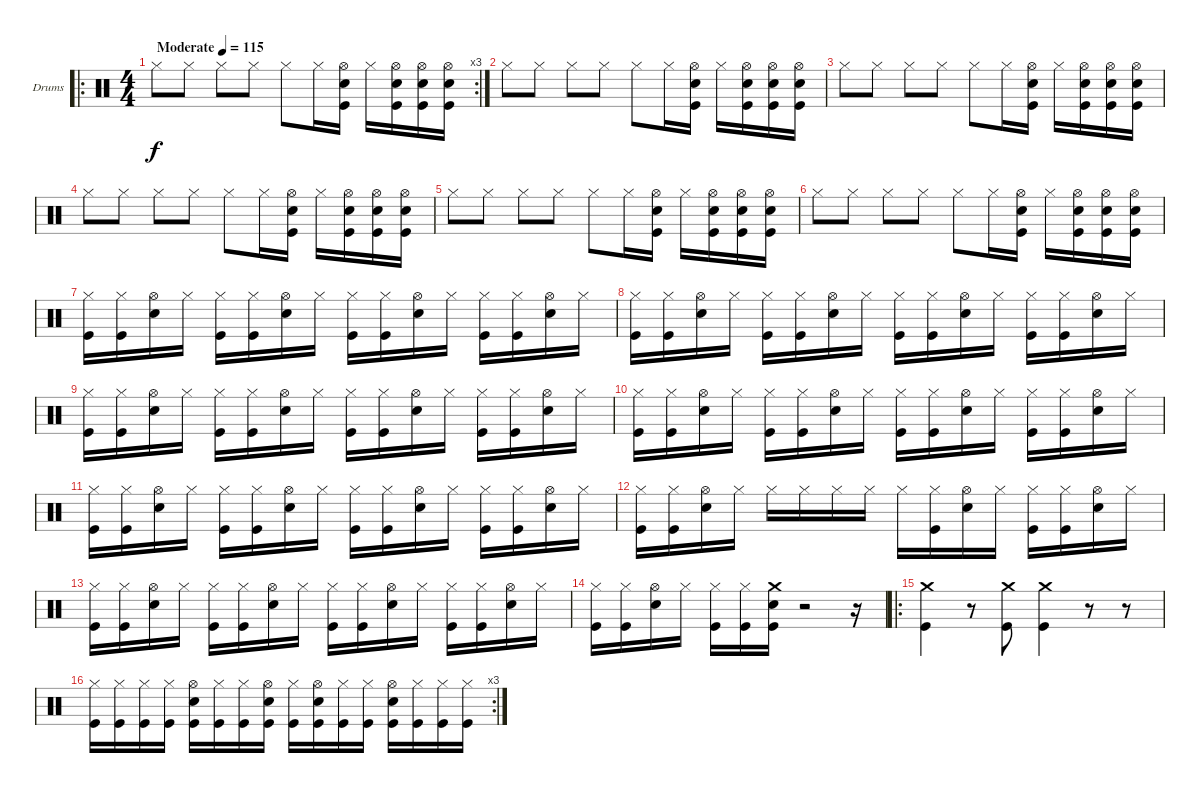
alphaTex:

\bracketExtendMode groupsimilarinstruments
\firstSystemTrackNameOrientation horizontal
\otherSystemsTrackNameOrientation horizontal
\track ("Drumkit" "Drums") {instrument percussion}
\staff {score}
\articulation defaults
\ro
\rc 3
\ts (4 4)
\beaming (8 2 2 2 2)
\tempo (115 "Moderate")
\clef neutral
\ks c "Hi-Hat (closed)".8{dy f} "Hi-Hat (closed)".8 "Hi-Hat (closed)".8 "Hi-Hat (closed)".8 "Hi-Hat (closed)".8 "Hi-Hat (closed)".16
("Hi-Hat (open)" "Snare (hit) 2" "Kick (hit)").16 "Hi-Hat (closed)".16 ("Hi-Hat (open)" "Snare (hit) 2" "Kick (hit)").16 ("Hi-Hat (open)" "Snare (hit) 2" "Kick (hit)").16 ("Hi-Hat (open)" "Snare (hit) 2" "Kick (hit)").16 |
"Hi-Hat (closed)".8 "Hi-Hat (closed)".8 "Hi-Hat (closed)".8 "Hi-Hat (closed)".8 "Hi-Hat (closed)".8 "Hi-Hat (closed)".16 ("Hi-Hat (open)" "Snare (hit) 2" "Kick (hit)").16 "Hi-Hat (closed)".16 ("Hi-Hat (open)" "Snare (hit) 2" "Kick (hit)").16 ("Hi-Hat (open)" "Snare (hit) 2" "Kick (hit)").16 ("Hi-Hat (open)" "Snare (hit) 2" "Kick (hit)").16 |
"Hi-Hat (closed)".8 "Hi-Hat (closed)".8 "Hi-Hat (closed)".8 "Hi-Hat (closed)".8 "Hi-Hat (closed)".8 "Hi-Hat (closed)".16 ("Hi-Hat (open)" "Snare (hit) 2" "Kick (hit)").16 "Hi-Hat (closed)".16 ("Hi-Hat (open)" "Snare (hit) 2" "Kick (hit)").16 ("Hi-Hat (open)" "Snare (hit) 2" "Kick (hit)").16 ("Hi-Hat (open)" "Snare (hit) 2" "Kick (hit)").16 |
"Hi-Hat (closed)".8 "Hi-Hat (closed)".8 "Hi-Hat (closed)".8 "Hi-Hat (closed)".8 "Hi-Hat (closed)".8 "Hi-Hat (closed)".16 ("Hi-Hat (open)" "Snare (hit) 2" "Kick (hit)").16 "Hi-Hat (closed)".16 ("Hi-Hat (open)" "Snare (hit) 2" "Kick (hit)").16 ("Hi-Hat (open)" "Snare (hit) 2" "Kick (hit)").16 ("Hi-Hat (open)" "Snare (hit) 2" "Kick (hit)").16 |
"Hi-Hat (closed)".8 "Hi-Hat (closed)".8 "Hi-Hat (closed)".8 "Hi-Hat (closed)".8 "Hi-Hat (closed)".8 "Hi-Hat (closed)".16 ("Hi-Hat (open)" "Snare (hit) 2" "Kick (hit)").16 "Hi-Hat (closed)".16 ("Hi-Hat (open)" "Snare (hit) 2" "Kick (hit)").16 ("Hi-Hat (open)" "Snare (hit) 2" "Kick (hit)").16 ("Hi-Hat (open)" "Snare (hit) 2" "Kick (hit)").16 |
"Hi-Hat (closed)".8 "Hi-Hat (closed)".8 "Hi-Hat (closed)".8 "Hi-Hat (closed)".8 "Hi-Hat (closed)".8 "Hi-Hat (closed)".16 ("Hi-Hat (open)" "Snare (hit) 2" "Kick (hit)").16 "Hi-Hat (closed)".16 ("Hi-Hat (open)" "Snare (hit) 2" "Kick (hit)").16 ("Hi-Hat (open)" "Snare (hit) 2" "Kick (hit)").16 ("Hi-Hat (open)" "Snare (hit) 2" "Kick (hit)").16 |
("Hi-Hat (closed)" "Kick (hit)").16 ("Hi-Hat (closed)" "Kick (hit)").16 ("Hi-Hat (open)" "Snare (hit) 2").16 "Hi-Hat (closed)".16 ("Hi-Hat (closed)" "Kick (hit)").16 ("Hi-Hat (closed)" "Kick (hit)").16 ("Hi-Hat (open)" "Snare (hit) 2").16 "Hi-Hat (closed)".16 ("Hi-Hat (closed)" "Kick (hit)").16 ("Hi-Hat (closed)" "Kick (hit)").16 ("Hi-Hat (open)" "Snare (hit) 2").16 "Hi-Hat (closed)".16 ("Hi-Hat (closed)" "Kick (hit)").16 ("Hi-Hat (closed)" "Kick (hit)").16 ("Hi-Hat (open)" "Snare (hit) 2").16 "Hi-Hat (closed)".16 |
("Hi-Hat (closed)" "Kick (hit)").16 ("Hi-Hat (closed)" "Kick (hit)").16 ("Hi-Hat (open)" "Snare (hit) 2").16 "Hi-Hat (closed)".16 ("Hi-Hat (closed)" "Kick (hit)").16 ("Hi-Hat (closed)" "Kick (hit)").16 ("Hi-Hat (open)" "Snare (hit) 2").16 "Hi-Hat (closed)".16 ("Hi-Hat (closed)" "Kick (hit)").16 ("Hi-Hat (closed)" "Kick (hit)").16 ("Hi-Hat (open)" "Snare (hit) 2").16 "Hi-Hat (closed)".16 ("Hi-Hat (closed)" "Kick (hit)").16 ("Hi-Hat (closed)" "Kick (hit)").16 ("Hi-Hat (open)" "Snare (hit) 2").16 "Hi-Hat (closed)".16 |
("Hi-Hat (closed)" "Kick (hit)").16 ("Hi-Hat (closed)" "Kick (hit)").16 ("Hi-Hat (open)" "Snare (hit) 2").16 "Hi-Hat (closed)".16 ("Hi-Hat (closed)" "Kick (hit)").16 ("Hi-Hat (closed)" "Kick (hit)").16 ("Hi-Hat (open)" "Snare (hit) 2").16 "Hi-Hat (closed)".16 ("Hi-Hat (closed)" "Kick (hit)").16 ("Hi-Hat (closed)" "Kick (hit)").16 ("Hi-Hat (open)" "Snare (hit) 2").16 "Hi-Hat (closed)".16 ("Hi-Hat (closed)" "Kick (hit)").16 ("Hi-Hat (closed)" "Kick (hit)").16 ("Hi-Hat (open)" "Snare (hit) 2").16 "Hi-Hat (closed)".16 |
("Hi-Hat (closed)" "Kick (hit)").16 ("Hi-Hat (closed)" "Kick (hit)").16 ("Hi-Hat (open)" "Snare (hit) 2").16 "Hi-Hat (closed)".16 ("Hi-Hat (closed)" "Kick (hit)").16 ("Hi-Hat (closed)" "Kick (hit)").16 ("Hi-Hat (open)" "Snare (hit) 2").16 "Hi-Hat (closed)".16 ("Hi-Hat (closed)" "Kick (hit)").16 ("Hi-Hat (closed)" "Kick (hit)").16 ("Hi-Hat (open)" "Snare (hit) 2").16 "Hi-Hat (closed)".16 ("Hi-Hat (closed)" "Kick (hit)").16 ("Hi-Hat (closed)" "Kick (hit)").16 ("Hi-Hat (open)" "Snare (hit) 2").16 "Hi-Hat (closed)".16 |
("Hi-Hat (closed)" "Kick (hit)").16 ("Hi-Hat (closed)" "Kick (hit)").16 ("Hi-Hat (open)" "Snare (hit) 2").16 "Hi-Hat (closed)".16 ("Hi-Hat (closed)" "Kick (hit)").16 ("Hi-Hat (closed)" "Kick (hit)").16 ("Hi-Hat (open)" "Snare (hit) 2").16 "Hi-Hat (closed)".16 ("Hi-Hat (closed)" "Kick (hit)").16 ("Hi-Hat (closed)" "Kick (hit)").16 ("Hi-Hat (open)" "Snare (hit) 2").16 "Hi-Hat (closed)".16 ("Hi-Hat (closed)" "Kick (hit)").16 ("Hi-Hat (closed)" "Kick (hit)").16 ("Hi-Hat (open)" "Snare (hit) 2").16 "Hi-Hat (closed)".16 |
("Hi-Hat (closed)" "Kick (hit)").16 ("Hi-Hat (closed)" "Kick (hit)").16 ("Hi-Hat (open)" "Snare (hit) 2").16 "Hi-Hat (closed)".16 "Hi-Hat (closed)".16 "Hi-Hat (closed)".16 "Hi-Hat (closed)".16 "Hi-Hat (closed)".16 "Hi-Hat (closed)".16 ("Hi-Hat (closed)" "Kick (hit)").16 ("Hi-Hat (open)" "Snare (hit) 2").16 "Hi-Hat (closed)".16 ("Hi-Hat (closed)" "Kick (hit)").16 ("Hi-Hat (closed)" "Kick (hit)").16 ("Hi-Hat (open)" "Snare (hit) 2").16 "Hi-Hat (closed)".16 |
("Hi-Hat (closed)" "Kick (hit)").16 ("Hi-Hat (closed)" "Kick (hit)").16 ("Hi-Hat (open)" "Snare (hit) 2").16 "Hi-Hat (closed)".16 ("Hi-Hat (closed)" "Kick (hit)").16 ("Hi-Hat (closed)" "Kick (hit)").16 ("Hi-Hat (open)" "Snare (hit) 2").16 "Hi-Hat (closed)".16 ("Hi-Hat (closed)" "Kick (hit)").16 ("Hi-Hat (closed)" "Kick (hit)").16 ("Hi-Hat (open)" "Snare (hit) 2").16 "Hi-Hat (closed)".16 ("Hi-Hat (closed)" "Kick (hit)").16 ("Hi-Hat (closed)" "Kick (hit)").16 ("Hi-Hat (open)" "Snare (hit) 2").16 "Hi-Hat (closed)".16 |
("Hi-Hat (closed)" "Kick (hit)").16 ("Hi-Hat (closed)" "Kick (hit)").16 ("Hi-Hat (open)" "Snare (hit) 2").16 "Hi-Hat (closed)".16 ("Hi-Hat (closed)" "Kick (hit)").16 ("Hi-Hat (closed)" "Kick (hit)").16 ("Kick (hit)" "Crash medium (hit)" "Snare (hit) 2").16 r.2 r.16 |
\ro
("Crash medium (hit)" "Kick (hit)").4 r.8 ("Crash medium (hit)" "Kick (hit)").8 ("Crash medium (hit)" "Kick (hit)").4 r.8 r.8 |
\rc 3
("Hi-Hat (closed)" "Kick (hit)").16 ("Hi-Hat (closed)" "Kick (hit)").16 ("Hi-Hat (closed)" "Kick (hit)").16 ("Hi-Hat (closed)" "Kick (hit)").16 ("Hi-Hat (open)" "Snare (hit) 2" "Kick (hit)").16 ("Hi-Hat (closed)" "Kick (hit)").16 ("Hi-Hat (closed)" "Kick (hit)").16 ("Hi-Hat (open)" "Snare (hit) 2" "Kick (hit)").16 ("Hi-Hat (closed)" "Kick (hit)").16 ("Hi-Hat (open)" "Snare (hit) 2" "Kick (hit)").16 ("Hi-Hat (closed)" "Kick (hit)").16 ("Hi-Hat (closed)" "Kick (hit)").16 ("Hi-Hat (open)" "Snare (hit) 2" "Kick (hit)").16 ("Hi-Hat (closed)" "Kick (hit)").16 ("Hi-Hat (closed)" "Kick (hit)").16 ("Hi-Hat (closed)" "Kick (hit)").16
